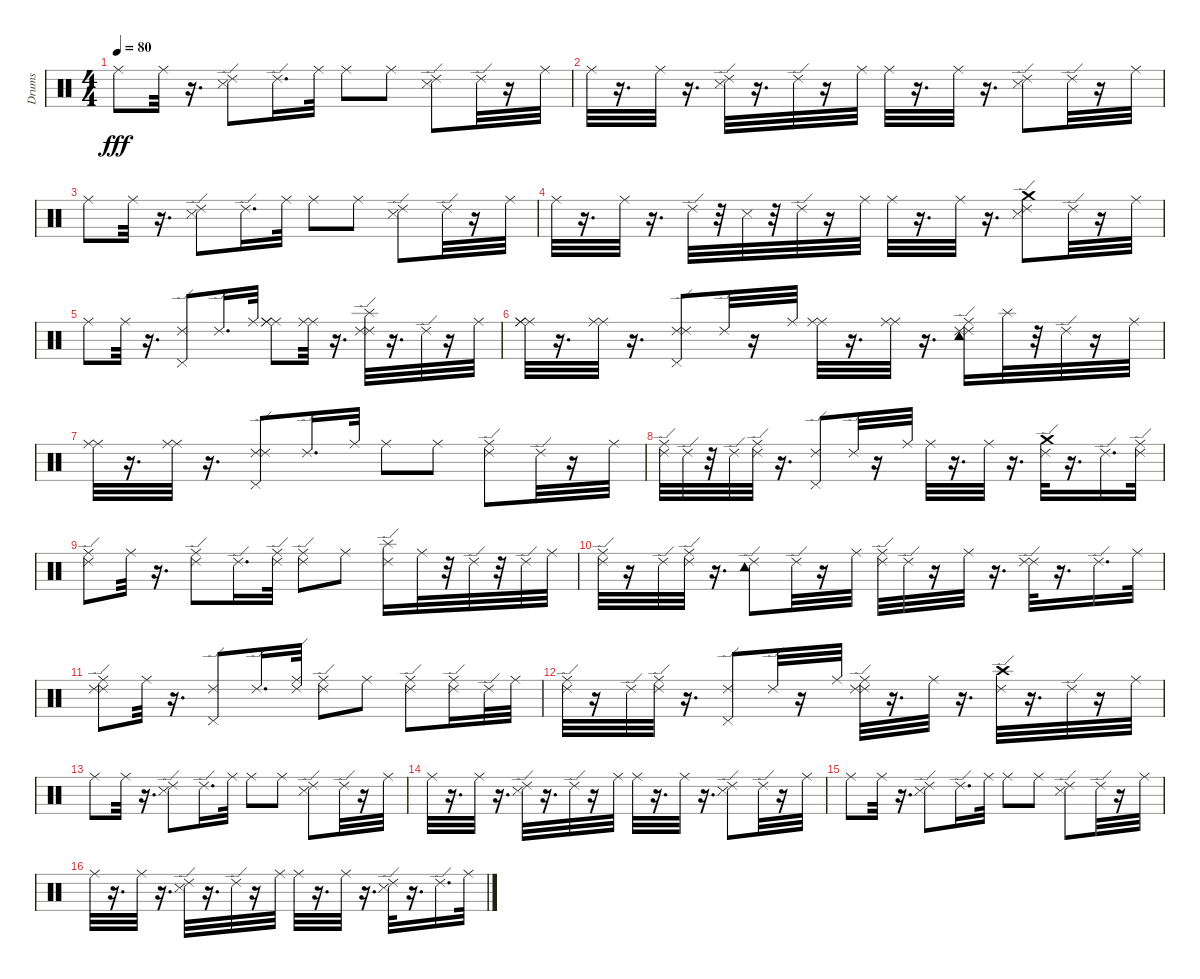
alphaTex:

\track ("Drums   " "Drums   ") {instrument percussion}
\staff {score}
\articulation defaults
\ts (4 4)
\tempo 80
\clef neutral
\ks c "Ride (middle)".8{dy fff} "Ride (middle)".32
r.16{d} ("Snare (side stick) 3" "Ride (edge) 2").8 "Ride (edge) 2".16{d} "Ride (middle)".32 "Ride (middle)".8 "Ride (middle)".8 ("Snare (side stick) 3" "Ride (edge) 2").8 "Ride (edge) 2".32 r.16 "Ride (middle)".32 |
"Ride (middle)".32 r.16{d} "Ride (middle)".32 r.16{d} ("Snare (side stick) 3" "Ride (edge) 2").32 r.16{d} "Ride (edge) 2".32 r.16 "Ride (middle)".32 "Ride (middle)".32 r.16{d} "Ride (middle)".32 r.16{d} ("Snare (side stick) 3" "Ride (edge) 2").8 "Ride (edge) 2".32 r.16 "Ride (middle)".32 |
"Ride (middle)".8 "Ride (middle)".32 r.16{d} ("Snare (side stick) 3" "Ride (edge) 2").8 "Ride (edge) 2".16{d} "Ride (middle)".32 "Ride (middle)".8 "Ride (middle)".8 ("Snare (side stick) 3" "Ride (edge) 2").8 "Ride (edge) 2".32 r.16 "Ride (middle)".32 |
"Ride (middle)".32 r.16{d} "Ride (middle)".32 r.16{d} "Ride (edge) 2".32 r.32 "Snare (side stick) 3".32 r.32 "Ride (edge) 2".32 r.16 "Ride (middle)".32 "Ride (middle)".32 r.16{d} "Ride (middle)".32 r.16{d} ("Snare (side stick) 3" "Crash medium (hit)" "Ride (edge) 2").8 "Ride (edge) 2".32 r.16 "Ride (middle)".32 |
"Ride (middle)".8 "Ride (middle)".32 r.16{d} ("Pedal Hi-Hat (hit)" "Ride (edge) 2").8 "Ride (edge) 2".16{d} "Ride (middle)".32 ("Ride (middle)" "Ride (middle)" "Ride (middle)").8 ("Ride (middle)" "Ride (middle)").32 r.16{d} ("Splash (hit)" "Ride (edge) 2" "Ride (edge) 2").32 r.16{d} "Ride (edge) 2".32 r.16 "Ride (middle)".32 |
("Ride (middle)" "Ride (middle)" "Ride (middle)").32 r.16{d} ("Ride (middle)" "Ride (middle)").32 r.16{d} ("Pedal Hi-Hat (hit)" "Ride (edge) 2" "Ride (edge) 2").8 "Ride (edge) 2".32 r.16 "Ride (middle)".32 ("Ride (middle)" "Ride (middle)").32 r.16{d} ("Ride (middle)" "Ride (middle)").32 r.16{d} ("Ride (middle)" "Tambourine (hit)" "Ride (edge) 2" "Ride (edge) 2").16 "Splash (hit)".32 r.32 "Ride (edge) 2".32 r.16 "Ride (middle)".32 |
("Ride (middle)" "Ride (middle)").32 r.16{d} ("Ride (middle)" "Ride (middle)").32 r.16{d} ("Pedal Hi-Hat (hit)" "Ride (edge) 2" "Ride (edge) 2").8 "Ride (edge) 2".16{d} "Ride (middle)".32 "Ride (middle)".8 "Ride (middle)".8 ("Ride (middle)" "Ride (edge) 2").8 "Ride (edge) 2".32 r.16 "Ride (middle)".32 |
("Ride (middle)" "Ride (edge) 2").32 "Ride (edge) 2".32 r.32 "Ride (edge) 2".32 ("Ride (middle)" "Ride (edge) 2").32 r.16{d} ("Pedal Hi-Hat (hit)" "Ride (edge) 2").8 "Ride (edge) 2".32 r.16 "Ride (middle)".32 "Ride (middle)".32 r.16{d} "Ride (middle)".32 r.16{d} ("Crash medium (hit)" "Ride (edge) 2").32 r.16{d} "Ride (edge) 2".16{d} ("Ride (edge) 2" "Ride (middle)").32 |
("Ride (middle)" "Ride (edge) 2").8 "Ride (middle)".32 r.16{d} ("Ride (middle)" "Ride (edge) 2").8 "Ride (edge) 2".16{d} ("Ride (edge) 2" "Ride (middle)").32 ("Ride (middle)" "Ride (edge) 2").8 "Ride (middle)".8 ("Splash (hit)" "Ride (edge) 2").16 "Ride (middle)".32 r.32 "Ride (edge) 2".32 r.32 "Ride (edge) 2".32 "Ride (middle)".32 |
("Ride (middle)" "Ride (edge) 2").32 r.16 "Ride (edge) 2".32 ("Ride (middle)" "Ride (edge) 2").32 r.16{d} ("Tambourine (hit)" "Ride (edge) 2").8 "Ride (edge) 2".32 r.16 "Ride (middle)".32 ("Ride (middle)" "Ride (edge) 2").32 "Ride (edge) 2".32 r.16 "Ride (middle)".32 r.16{d} ("Ride (edge) 2" "Ride (edge) 2").32 r.16{d} "Ride (edge) 2".16{d} "Ride (middle)".32 |
("Ride (middle)" "Ride (edge) 2" "Ride (edge) 2").8 "Ride (middle)".32 r.16{d} ("Pedal Hi-Hat (hit)" "Ride (edge) 2").8 "Ride (edge) 2".16{d} ("Ride (edge) 2" "Ride (middle)").32 ("Ride (middle)" "Ride (edge) 2").8 "Ride (middle)".8 ("Ride (middle)" "Ride (edge) 2").8 ("Ride (edge) 2" "Ride (middle)").16 "Ride (edge) 2".32 "Ride (middle)".32 |
("Ride (middle)" "Ride (edge) 2").32 r.16 "Ride (edge) 2".32 ("Ride (middle)" "Ride (edge) 2").32 r.16{d} ("Pedal Hi-Hat (hit)" "Ride (edge) 2").8 "Ride (edge) 2".32 r.16 "Ride (middle)".32 ("Ride (middle)" "Ride (edge) 2" "Ride (edge) 2").32 r.16{d} "Ride (middle)".32 r.16{d} ("Crash high (hit)" "Ride (edge) 2").32 r.16{d} "Ride (edge) 2".32 r.16 "Ride (middle)".32 |
"Ride (middle)".8 "Ride (middle)".32 r.16{d} ("Snare (side stick) 3" "Ride (edge) 2").8 "Ride (edge) 2".16{d} "Ride (middle)".32 "Ride (middle)".8 "Ride (middle)".8 ("Snare (side stick) 3" "Ride (edge) 2").8 "Ride (edge) 2".32 r.16 "Ride (middle)".32 |
"Ride (middle)".32 r.16{d} "Ride (middle)".32 r.16{d} ("Snare (side stick) 3" "Ride (edge) 2").32 r.16{d} "Ride (edge) 2".32 r.16 "Ride (middle)".32 "Ride (middle)".32 r.16{d} "Ride (middle)".32 r.16{d} ("Snare (side stick) 3" "Ride (edge) 2").8 "Ride (edge) 2".32 r.16 "Ride (middle)".32 |
"Ride (middle)".8 "Ride (middle)".32 r.16{d} ("Snare (side stick) 3" "Ride (edge) 2").8 "Ride (edge) 2".16{d} "Ride (middle)".32 "Ride (middle)".8 "Ride (middle)".8 ("Snare (side stick) 3" "Ride (edge) 2").8 "Ride (edge) 2".32 r.16 "Ride (middle)".32 |
"Ride (middle)".32 r.16{d} "Ride (middle)".32 r.16{d} ("Snare (side stick) 3" "Ride (edge) 2").32 r.16{d} "Ride (edge) 2".32 r.16 "Ride (middle)".32 "Ride (middle)".32 r.16{d} "Ride (middle)".32 r.16{d} ("Snare (side stick) 3" "Ride (edge) 2").32 r.16{d} "Ride (edge) 2".16{d} "Ride (middle)".32
